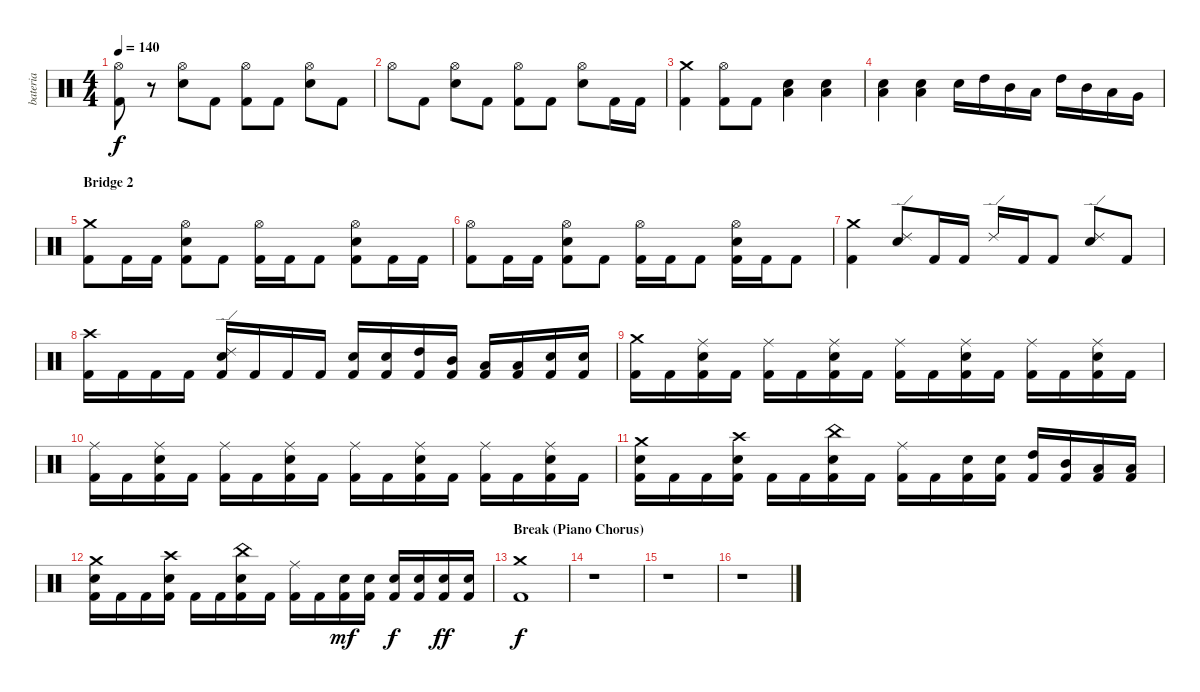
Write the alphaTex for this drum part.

\track ("bateria" "bateria") {instrument percussion}
\staff {score}
\articulation defaults
\ts (4 4)
\tempo 140
\clef neutral
\ks c
("Hi-Hat (open)" "Kick (hit) 2").8{dy f} r.8 ("Hi-Hat (open)" "Electric Snare (hit)").8 "Kick (hit) 2".8 ("Hi-Hat (open)" "Kick (hit) 2").8 "Kick (hit) 2".8 ("Hi-Hat (open)" "Electric Snare (hit)").8 "Kick (hit) 2".8 |
"Hi-Hat (open)".8 "Kick (hit) 2".8 ("Hi-Hat (open)" "Electric Snare (hit)").8 "Kick (hit) 2".8 ("Hi-Hat (open)" "Kick (hit) 2").8 "Kick (hit) 2".8 ("Hi-Hat (open)" "Electric Snare (hit)").8 "Kick (hit) 2".16 "Kick (hit) 2".16 |
("Crash medium (hit)" "Kick (hit) 2").4 ("Hi-Hat (open)" "Kick (hit) 2").8 "Kick (hit) 2".8 ("Electric Snare (hit)" "Low Tom (hit)").4 ("Electric Snare (hit)" "Low Tom (hit)").4 |
("Electric Snare (hit)" "Low Tom (hit)").4 ("Electric Snare (hit)" "Low Tom (hit)").4 "Electric Snare (hit)".16 "High Tom (hit)".16 "Mid Tom (hit)".16 "Low Tom (hit)".16 "High Tom (hit)".16 "Mid Tom (hit)".16 "Low Tom (hit)".16 "Very Low Tom (hit)".16 |
\section ("" "Bridge 2")
("Crash medium (hit)" "Kick (hit) 2").8 "Kick (hit) 2".16 "Kick (hit) 2".16 ("Hi-Hat (open)" "Electric Snare (hit)" "Kick (hit) 2").8 "Kick (hit) 2".8 ("Hi-Hat (open)" "Kick (hit) 2").16 "Kick (hit) 2".16 "Kick (hit) 2".8 ("Hi-Hat (open)" "Electric Snare (hit)" "Kick (hit) 2").8 "Kick (hit) 2".16 "Kick (hit) 2".16 |
("Hi-Hat (open)" "Kick (hit) 2").8 "Kick (hit) 2".16 "Kick (hit) 2".16 ("Hi-Hat (open)" "Electric Snare (hit)" "Kick (hit) 2").8 "Kick (hit) 2".8 ("Hi-Hat (open)" "Kick (hit) 2").16 "Kick (hit) 2".16 "Kick (hit) 2".8 ("Hi-Hat (open)" "Electric Snare (hit)" "Kick (hit) 2").16 "Kick (hit) 2".16 "Kick (hit) 2".8 |
("Crash medium (hit)" "Kick (hit) 2").4 ("Ride (edge) 2" "Electric Snare (hit)").8 "Kick (hit) 2".16 "Kick (hit) 2".16 "Ride (edge) 2".16 "Kick (hit) 2".16 "Kick (hit) 2".8 ("Ride (edge) 2" "Electric Snare (hit)").8 "Kick (hit) 2".8 |
("Crash high (hit)" "Kick (hit) 2").16 "Kick (hit) 2".16 "Kick (hit) 2".16 "Kick (hit) 2".16 ("Ride (edge) 2" "Electric Snare (hit)" "Kick (hit) 2").16 "Kick (hit) 2".16 "Kick (hit) 2".16 "Kick (hit) 2".16 ("Electric Snare (hit)" "Kick (hit) 2").16 ("Electric Snare (hit)" "Kick (hit) 2").16 ("High Tom (hit)" "Kick (hit) 2").16 ("Mid Tom (hit)" "Kick (hit) 2").16 ("Low Tom (hit)" "Kick (hit) 2").16 ("Low Tom (hit)" "Kick (hit) 2").16 ("Electric Snare (hit)" "Kick (hit) 2").16 ("Electric Snare (hit)" "Kick (hit) 2").16 |
("Crash medium (hit)" "Kick (hit) 2").16 "Kick (hit) 2".16 ("Ride (middle)" "Electric Snare (hit)" "Kick (hit) 2").16 "Kick (hit) 2".16 ("Ride (middle)" "Kick (hit) 2").16 "Kick (hit) 2".16 ("Ride (middle)" "Electric Snare (hit)" "Kick (hit) 2").16 "Kick (hit) 2".16 ("Ride (middle)" "Kick (hit) 2").16 "Kick (hit) 2".16 ("Ride (middle)" "Electric Snare (hit)" "Kick (hit) 2").16 "Kick (hit) 2".16 ("Ride (middle)" "Kick (hit) 2").16 "Kick (hit) 2".16 ("Ride (middle)" "Electric Snare (hit)" "Kick (hit) 2").16 "Kick (hit) 2".16 |
("Ride (middle)" "Kick (hit) 2").16 "Kick (hit) 2".16 ("Ride (middle)" "Electric Snare (hit)" "Kick (hit) 2").16 "Kick (hit) 2".16 ("Ride (middle)" "Kick (hit) 2").16 "Kick (hit) 2".16 ("Ride (middle)" "Electric Snare (hit)" "Kick (hit) 2").16 "Kick (hit) 2".16 ("Ride (middle)" "Kick (hit) 2").16 "Kick (hit) 2".16 ("Ride (middle)" "Electric Snare (hit)" "Kick (hit) 2").16 "Kick (hit) 2".16 ("Ride (middle)" "Kick (hit) 2").16 "Kick (hit) 2".16 ("Ride (middle)" "Electric Snare (hit)" "Kick (hit) 2").16 "Kick (hit) 2".16 |
("Crash medium (hit)" "Electric Snare (hit)" "Kick (hit) 2").16 "Kick (hit) 2".16 "Kick (hit) 2".16 ("Crash high (hit)" "Electric Snare (hit)" "Kick (hit) 2").16 "Kick (hit) 2".16 "Kick (hit) 2".16 ("China (hit)" "Electric Snare (hit)" "Kick (hit) 2").16 "Kick (hit) 2".16 ("Ride (middle)" "Kick (hit) 2").16 "Kick (hit) 2".16 ("Electric Snare (hit)" "Kick (hit) 2").16 ("Electric Snare (hit)" "Kick (hit) 2").16 ("High Tom (hit)" "Kick (hit) 2").16 ("Mid Tom (hit)" "Kick (hit) 2").16 ("Low Tom (hit)" "Kick (hit) 2").16 ("Low Tom (hit)" "Kick (hit) 2").16 |
("Crash medium (hit)" "Electric Snare (hit)" "Kick (hit) 2").16 "Kick (hit) 2".16 "Kick (hit) 2".16 ("Crash high (hit)" "Electric Snare (hit)" "Kick (hit) 2").16 "Kick (hit) 2".16 "Kick (hit) 2".16 ("China (hit)" "Electric Snare (hit)" "Kick (hit) 2").16 "Kick (hit) 2".16 ("Ride (middle)" "Kick (hit) 2").16 "Kick (hit) 2".16 ("Electric Snare (hit)" "Kick (hit) 2").16{dy mf} ("Electric Snare (hit)" "Kick (hit) 2").16 ("Electric Snare (hit)" "Kick (hit) 2").16{dy f} ("Electric Snare (hit)" "Kick (hit) 2").16 ("Electric Snare (hit)" "Kick (hit) 2").16{dy ff} ("Electric Snare (hit)" "Kick (hit) 2").16 |
\section ("" "Break (Piano Chorus)")
("Crash medium (hit)" "Kick (hit) 2").1{dy f} |
r.1 |
r.1 |
r.1
